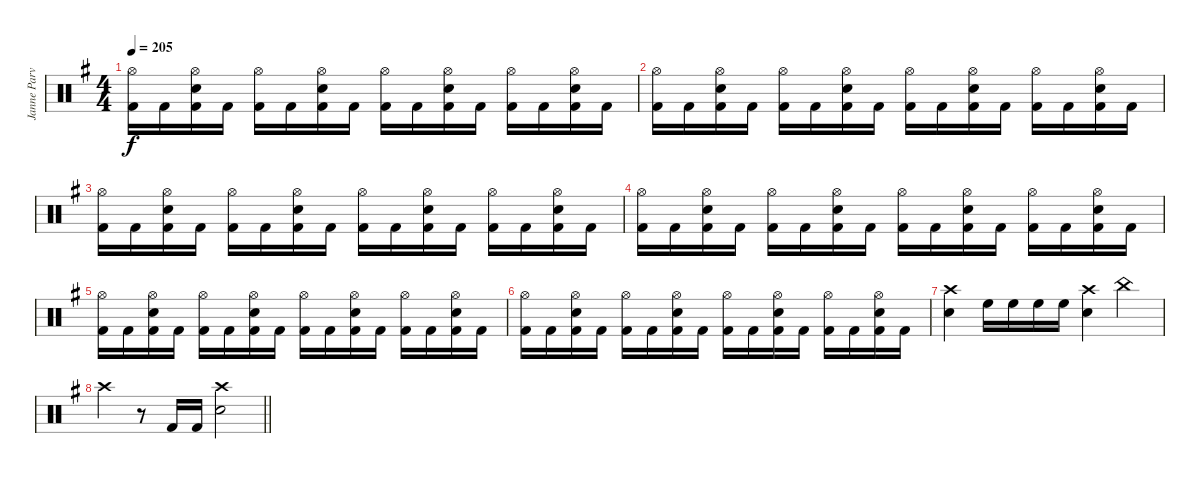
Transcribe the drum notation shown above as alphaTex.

\track ("Janne Parviainen" "Janne Parv") {instrument percussion}
\staff {score}
\articulation defaults
\ts (4 4)
\tempo 205
\clef neutral
\ks eminor
("Hi-Hat (open)" "Kick (hit) 2").16{dy f} "Kick (hit) 2".16 ("Hi-Hat (open)" "Snare (hit) 2" "Kick (hit) 2").16 "Kick (hit) 2".16 ("Hi-Hat (open)" "Kick (hit) 2").16 "Kick (hit) 2".16 ("Hi-Hat (open)" "Snare (hit) 2" "Kick (hit) 2").16 "Kick (hit) 2".16 ("Hi-Hat (open)" "Kick (hit) 2").16 "Kick (hit) 2".16 ("Hi-Hat (open)" "Snare (hit) 2" "Kick (hit) 2").16 "Kick (hit) 2".16 ("Hi-Hat (open)" "Kick (hit) 2").16 "Kick (hit) 2".16 ("Hi-Hat (open)" "Snare (hit) 2" "Kick (hit) 2").16 "Kick (hit) 2".16 |
("Hi-Hat (open)" "Kick (hit) 2").16 "Kick (hit) 2".16 ("Hi-Hat (open)" "Snare (hit) 2" "Kick (hit) 2").16 "Kick (hit) 2".16 ("Hi-Hat (open)" "Kick (hit) 2").16 "Kick (hit) 2".16 ("Hi-Hat (open)" "Snare (hit) 2" "Kick (hit) 2").16 "Kick (hit) 2".16 ("Hi-Hat (open)" "Kick (hit) 2").16 "Kick (hit) 2".16 ("Hi-Hat (open)" "Snare (hit) 2" "Kick (hit) 2").16 "Kick (hit) 2".16 ("Hi-Hat (open)" "Kick (hit) 2").16 "Kick (hit) 2".16 ("Hi-Hat (open)" "Snare (hit) 2" "Kick (hit) 2").16 "Kick (hit) 2".16 |
("Hi-Hat (open)" "Kick (hit) 2").16 "Kick (hit) 2".16 ("Hi-Hat (open)" "Snare (hit) 2" "Kick (hit) 2").16 "Kick (hit) 2".16 ("Hi-Hat (open)" "Kick (hit) 2").16 "Kick (hit) 2".16 ("Hi-Hat (open)" "Snare (hit) 2" "Kick (hit) 2").16 "Kick (hit) 2".16 ("Hi-Hat (open)" "Kick (hit) 2").16 "Kick (hit) 2".16 ("Hi-Hat (open)" "Snare (hit) 2" "Kick (hit) 2").16 "Kick (hit) 2".16 ("Hi-Hat (open)" "Kick (hit) 2").16 "Kick (hit) 2".16 ("Hi-Hat (open)" "Snare (hit) 2" "Kick (hit) 2").16 "Kick (hit) 2".16 |
("Hi-Hat (open)" "Kick (hit) 2").16 "Kick (hit) 2".16 ("Hi-Hat (open)" "Snare (hit) 2" "Kick (hit) 2").16 "Kick (hit) 2".16 ("Hi-Hat (open)" "Kick (hit) 2").16 "Kick (hit) 2".16 ("Hi-Hat (open)" "Snare (hit) 2" "Kick (hit) 2").16 "Kick (hit) 2".16 ("Hi-Hat (open)" "Kick (hit) 2").16 "Kick (hit) 2".16 ("Hi-Hat (open)" "Snare (hit) 2" "Kick (hit) 2").16 "Kick (hit) 2".16 ("Hi-Hat (open)" "Kick (hit) 2").16 "Kick (hit) 2".16 ("Hi-Hat (open)" "Snare (hit) 2" "Kick (hit) 2").16 "Kick (hit) 2".16 |
("Hi-Hat (open)" "Kick (hit) 2").16 "Kick (hit) 2".16 ("Hi-Hat (open)" "Snare (hit) 2" "Kick (hit) 2").16 "Kick (hit) 2".16 ("Hi-Hat (open)" "Kick (hit) 2").16 "Kick (hit) 2".16 ("Hi-Hat (open)" "Snare (hit) 2" "Kick (hit) 2").16 "Kick (hit) 2".16 ("Hi-Hat (open)" "Kick (hit) 2").16 "Kick (hit) 2".16 ("Hi-Hat (open)" "Snare (hit) 2" "Kick (hit) 2").16 "Kick (hit) 2".16 ("Hi-Hat (open)" "Kick (hit) 2").16 "Kick (hit) 2".16 ("Hi-Hat (open)" "Snare (hit) 2" "Kick (hit) 2").16 "Kick (hit) 2".16 |
("Hi-Hat (open)" "Kick (hit) 2").16 "Kick (hit) 2".16 ("Hi-Hat (open)" "Snare (hit) 2" "Kick (hit) 2").16 "Kick (hit) 2".16 ("Hi-Hat (open)" "Kick (hit) 2").16 "Kick (hit) 2".16 ("Hi-Hat (open)" "Snare (hit) 2" "Kick (hit) 2").16 "Kick (hit) 2".16 ("Hi-Hat (open)" "Kick (hit) 2").16 "Kick (hit) 2".16 ("Hi-Hat (open)" "Snare (hit) 2" "Kick (hit) 2").16 "Kick (hit) 2".16 ("Hi-Hat (open)" "Kick (hit) 2").16 "Kick (hit) 2".16 ("Hi-Hat (open)" "Snare (hit) 2" "Kick (hit) 2").16 "Kick (hit) 2".16 |
("Crash high (hit)" "Snare (hit) 2").4 "High Floor Tom (hit)".16 "High Floor Tom (hit)".16 "High Floor Tom (hit)".16 "High Floor Tom (hit)".16 ("Snare (hit) 2" "Crash high (hit)").4 "China (hit)".4 |
\barLineRight lightlight "Crash high (hit)".4
r.8 "Kick (hit) 2".16 "Kick (hit) 2".16 ("Crash high (hit)" "Snare (hit) 2").2
